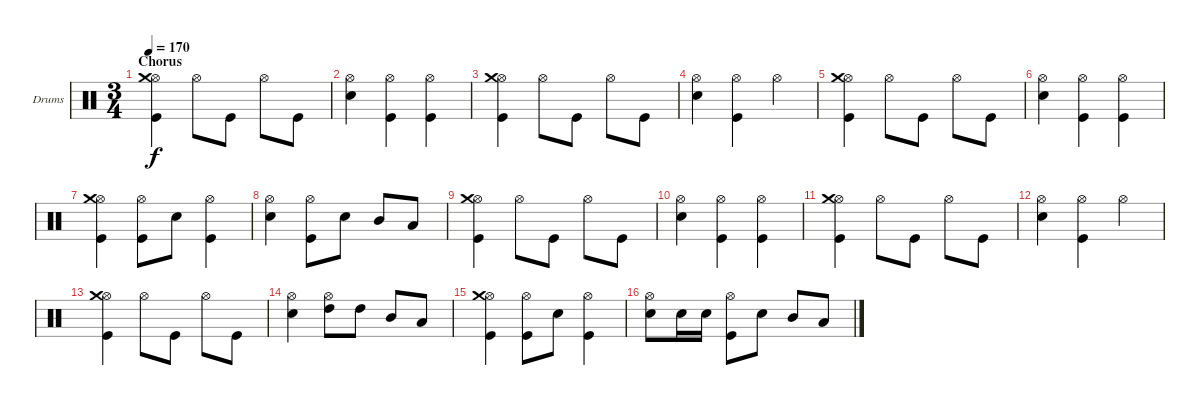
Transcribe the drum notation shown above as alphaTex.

\defaultSystemsLayout 4
\bracketExtendMode groupsimilarinstruments
\firstSystemTrackNameOrientation horizontal
\otherSystemsTrackNameOrientation horizontal
\track ("Drums" "Drums") {instrument percussion}
\staff {score}
\articulation defaults
\ts (3 4)
\section ("" "Chorus")
\tempo 170
\clef neutral
\ks c
("Hi-Hat (open)" "Kick (hit)" "Crash medium (hit)").4{dy f} "Hi-Hat (open)".8 "Kick (hit)".8 "Hi-Hat (open)".8 "Kick (hit)".8 |
("Hi-Hat (open)" "Snare (hit) 2").4 ("Hi-Hat (open)" "Kick (hit)").4 ("Hi-Hat (open)" "Kick (hit)").4 |
("Hi-Hat (open)" "Kick (hit)" "Crash medium (hit)").4 "Hi-Hat (open)".8 "Kick (hit)".8 "Hi-Hat (open)".8 "Kick (hit)".8 |
("Hi-Hat (open)" "Snare (hit) 2").4 ("Hi-Hat (open)" "Kick (hit)").4 "Hi-Hat (open)".4 |
("Hi-Hat (open)" "Kick (hit)" "Crash medium (hit)").4 "Hi-Hat (open)".8 "Kick (hit)".8 "Hi-Hat (open)".8 "Kick (hit)".8 |
("Hi-Hat (open)" "Snare (hit) 2").4 ("Hi-Hat (open)" "Kick (hit)").4 ("Hi-Hat (open)" "Kick (hit)").4 |
("Hi-Hat (open)" "Kick (hit)" "Crash medium (hit)").4 ("Hi-Hat (open)" "Kick (hit)").8 "Snare (hit) 2".8 ("Hi-Hat (open)" "Kick (hit)").4 |
("Hi-Hat (open)" "Snare (hit) 2").4 ("Hi-Hat (open)" "Kick (hit)").8 "Snare (hit) 2".8 "Mid Tom (hit)".8 "Low Tom (hit)".8 |
("Hi-Hat (open)" "Kick (hit)" "Crash medium (hit)").4 "Hi-Hat (open)".8 "Kick (hit)".8 "Hi-Hat (open)".8 "Kick (hit)".8 |
("Hi-Hat (open)" "Snare (hit) 2").4 ("Hi-Hat (open)" "Kick (hit)").4 ("Hi-Hat (open)" "Kick (hit)").4 |
("Hi-Hat (open)" "Kick (hit)" "Crash medium (hit)").4 "Hi-Hat (open)".8 "Kick (hit)".8 "Hi-Hat (open)".8 "Kick (hit)".8 |
("Hi-Hat (open)" "Snare (hit) 2").4 ("Hi-Hat (open)" "Kick (hit)").4 "Hi-Hat (open)".4 |
("Hi-Hat (open)" "Kick (hit)" "Crash medium (hit)").4 "Hi-Hat (open)".8 "Kick (hit)".8 "Hi-Hat (open)".8 "Kick (hit)".8 |
("Hi-Hat (open)" "Snare (hit) 2").4 ("Hi-Hat (open)" "High Tom (hit)").8 "High Tom (hit)".8 "Mid Tom (hit)".8 "Low Tom (hit)".8 |
("Hi-Hat (open)" "Kick (hit)" "Crash medium (hit)").4 ("Hi-Hat (open)" "Kick (hit)").8 "Snare (hit) 2".8 ("Hi-Hat (open)" "Kick (hit)").4 |
("Hi-Hat (open)" "Snare (hit) 2").8 "Snare (hit) 2".16 "Snare (hit) 2".16 ("Hi-Hat (open)" "Kick (hit)").8 "Snare (hit) 2".8 "Mid Tom (hit)".8 "Low Tom (hit)".8
